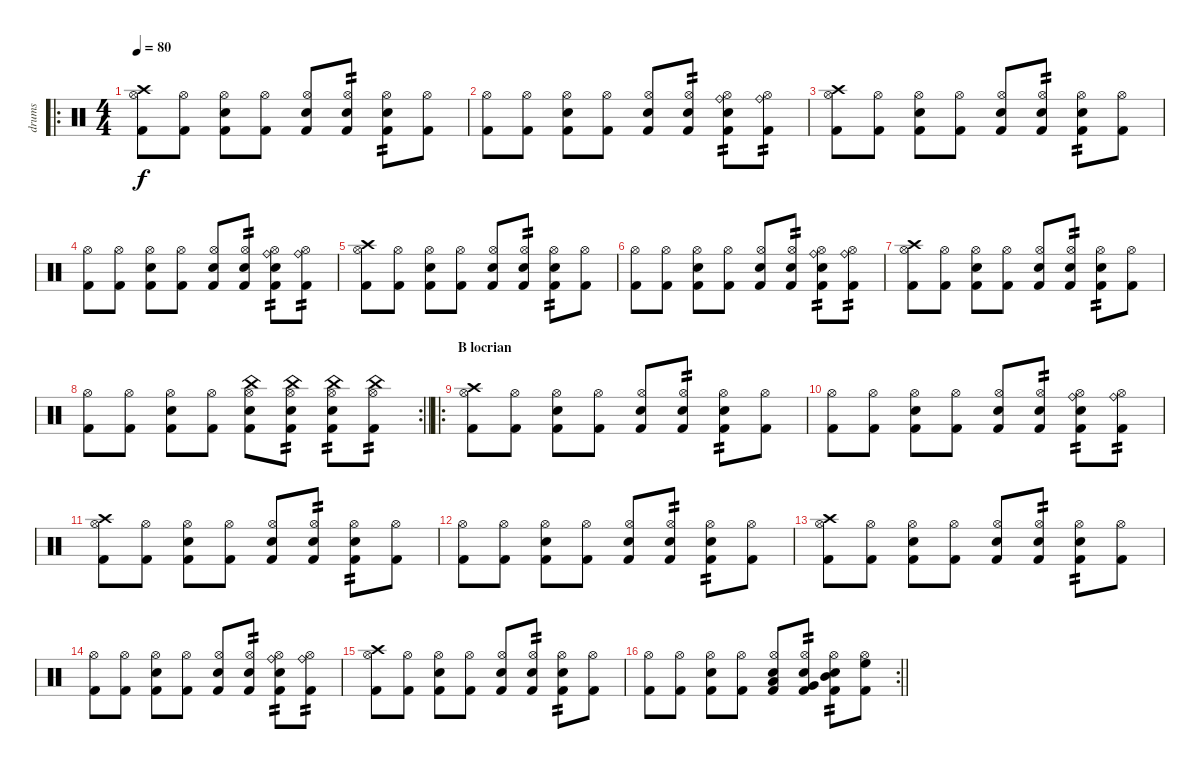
\track ("drums" "drums") {instrument percussion}
\staff {score}
\articulation defaults
\ro
\ts (4 4)
\tempo 80
\clef neutral
\ks c
("Kick (hit) 2" "Hi-Hat (open)" "Crash high (hit)").8{dy f} ("Kick (hit) 2" "Hi-Hat (open)").8 ("Kick (hit) 2" "Electric Snare (hit)" "Hi-Hat (open)").8 ("Kick (hit) 2" "Hi-Hat (open)").8 ("Kick (hit) 2" "Snare (hit) 2" "Hi-Hat (open)").8 ("Kick (hit) 2" "Snare (hit) 2" "Hi-Hat (open)").8{tp 2} ("Kick (hit) 2" "Electric Snare (hit)" "Hi-Hat (open)").8{tp 2} ("Kick (hit) 2" "Hi-Hat (open)").8 |
("Kick (hit) 2" "Hi-Hat (open)").8 ("Kick (hit) 2" "Hi-Hat (open)").8 ("Kick (hit) 2" "Electric Snare (hit)" "Hi-Hat (open)").8 ("Kick (hit) 2" "Hi-Hat (open)").8 ("Kick (hit) 2" "Snare (hit) 2" "Hi-Hat (open)").8 ("Kick (hit) 2" "Snare (hit) 2" "Hi-Hat (open)").8{tp 2} ("Kick (hit) 2" "Electric Snare (hit)" "Hi-Hat (open)" "Ride (bell)").8{tp 2} ("Kick (hit) 2" "Hi-Hat (open)" "Ride (bell)").8{tp 2} |
("Kick (hit) 2" "Hi-Hat (open)" "Crash high (hit)").8 ("Kick (hit) 2" "Hi-Hat (open)").8 ("Kick (hit) 2" "Electric Snare (hit)" "Hi-Hat (open)").8 ("Kick (hit) 2" "Hi-Hat (open)").8 ("Kick (hit) 2" "Snare (hit) 2" "Hi-Hat (open)").8 ("Kick (hit) 2" "Snare (hit) 2" "Hi-Hat (open)").8{tp 2} ("Kick (hit) 2" "Electric Snare (hit)" "Hi-Hat (open)").8{tp 2} ("Kick (hit) 2" "Hi-Hat (open)").8 |
("Kick (hit) 2" "Hi-Hat (open)").8 ("Kick (hit) 2" "Hi-Hat (open)").8 ("Kick (hit) 2" "Electric Snare (hit)" "Hi-Hat (open)").8 ("Kick (hit) 2" "Hi-Hat (open)").8 ("Kick (hit) 2" "Snare (hit) 2" "Hi-Hat (open)").8 ("Kick (hit) 2" "Snare (hit) 2" "Hi-Hat (open)").8{tp 2} ("Kick (hit) 2" "Electric Snare (hit)" "Hi-Hat (open)" "Ride (bell)").8{tp 2} ("Kick (hit) 2" "Hi-Hat (open)" "Ride (bell)").8{tp 2} |
("Kick (hit) 2" "Hi-Hat (open)" "Crash high (hit)").8 ("Kick (hit) 2" "Hi-Hat (open)").8 ("Kick (hit) 2" "Electric Snare (hit)" "Hi-Hat (open)").8 ("Kick (hit) 2" "Hi-Hat (open)").8 ("Kick (hit) 2" "Snare (hit) 2" "Hi-Hat (open)").8 ("Kick (hit) 2" "Snare (hit) 2" "Hi-Hat (open)").8{tp 2} ("Kick (hit) 2" "Electric Snare (hit)" "Hi-Hat (open)").8{tp 2} ("Kick (hit) 2" "Hi-Hat (open)").8 |
("Kick (hit) 2" "Hi-Hat (open)").8 ("Kick (hit) 2" "Hi-Hat (open)").8 ("Kick (hit) 2" "Electric Snare (hit)" "Hi-Hat (open)").8 ("Kick (hit) 2" "Hi-Hat (open)").8 ("Kick (hit) 2" "Snare (hit) 2" "Hi-Hat (open)").8 ("Kick (hit) 2" "Snare (hit) 2" "Hi-Hat (open)").8{tp 2} ("Kick (hit) 2" "Electric Snare (hit)" "Hi-Hat (open)" "Ride (bell)").8{tp 2} ("Kick (hit) 2" "Hi-Hat (open)" "Ride (bell)").8{tp 2} |
("Kick (hit) 2" "Hi-Hat (open)" "Crash high (hit)").8 ("Kick (hit) 2" "Hi-Hat (open)").8 ("Kick (hit) 2" "Electric Snare (hit)" "Hi-Hat (open)").8 ("Kick (hit) 2" "Hi-Hat (open)").8 ("Kick (hit) 2" "Snare (hit) 2" "Hi-Hat (open)").8 ("Kick (hit) 2" "Snare (hit) 2" "Hi-Hat (open)").8{tp 2} ("Kick (hit) 2" "Electric Snare (hit)" "Hi-Hat (open)").8{tp 2} ("Kick (hit) 2" "Hi-Hat (open)").8 |
\rc 2
\barLineRight lightlight
("Kick (hit) 2" "Hi-Hat (open)").8 ("Kick (hit) 2" "Hi-Hat (open)").8 ("Kick (hit) 2" "Electric Snare (hit)" "Hi-Hat (open)").8 ("Kick (hit) 2" "Hi-Hat (open)").8 ("Kick (hit) 2" "Snare (hit) 2" "Hi-Hat (open)" "China (hit)").8 ("Kick (hit) 2" "Snare (hit) 2" "Hi-Hat (open)" "China (hit)").8{tp 2} ("Kick (hit) 2" "Electric Snare (hit)" "Hi-Hat (open)" "China (hit)").8{tp 2} ("Kick (hit) 2" "Hi-Hat (open)" "China (hit)").8{tp 2} |
\ro
\section ("" "B locrian")
("Kick (hit) 2" "Hi-Hat (open)" "Crash high (hit)").8 ("Kick (hit) 2" "Hi-Hat (open)").8 ("Kick (hit) 2" "Electric Snare (hit)" "Hi-Hat (open)").8 ("Kick (hit) 2" "Hi-Hat (open)").8 ("Kick (hit) 2" "Snare (hit) 2" "Hi-Hat (open)").8 ("Kick (hit) 2" "Snare (hit) 2" "Hi-Hat (open)").8{tp 2} ("Kick (hit) 2" "Electric Snare (hit)" "Hi-Hat (open)").8{tp 2} ("Kick (hit) 2" "Hi-Hat (open)").8 |
("Kick (hit) 2" "Hi-Hat (open)").8 ("Kick (hit) 2" "Hi-Hat (open)").8 ("Kick (hit) 2" "Electric Snare (hit)" "Hi-Hat (open)").8 ("Kick (hit) 2" "Hi-Hat (open)").8 ("Kick (hit) 2" "Snare (hit) 2" "Hi-Hat (open)").8 ("Kick (hit) 2" "Snare (hit) 2" "Hi-Hat (open)").8{tp 2} ("Kick (hit) 2" "Electric Snare (hit)" "Hi-Hat (open)" "Ride (bell)").8{tp 2} ("Kick (hit) 2" "Hi-Hat (open)" "Ride (bell)").8{tp 2} |
("Kick (hit) 2" "Hi-Hat (open)" "Crash high (hit)").8 ("Kick (hit) 2" "Hi-Hat (open)").8 ("Kick (hit) 2" "Electric Snare (hit)" "Hi-Hat (open)").8 ("Kick (hit) 2" "Hi-Hat (open)").8 ("Kick (hit) 2" "Snare (hit) 2" "Hi-Hat (open)").8 ("Kick (hit) 2" "Snare (hit) 2" "Hi-Hat (open)").8{tp 2} ("Kick (hit) 2" "Electric Snare (hit)" "Hi-Hat (open)").8{tp 2} ("Kick (hit) 2" "Hi-Hat (open)").8 |
("Kick (hit) 2" "Hi-Hat (open)").8 ("Kick (hit) 2" "Hi-Hat (open)").8 ("Kick (hit) 2" "Electric Snare (hit)" "Hi-Hat (open)").8 ("Kick (hit) 2" "Hi-Hat (open)").8 ("Kick (hit) 2" "Snare (hit) 2" "Hi-Hat (open)").8 ("Kick (hit) 2" "Snare (hit) 2" "Hi-Hat (open)").8{tp 2} ("Kick (hit) 2" "Electric Snare (hit)" "Hi-Hat (open)").8{tp 2} ("Kick (hit) 2" "Hi-Hat (open)").8 |
("Kick (hit) 2" "Hi-Hat (open)" "Crash high (hit)").8 ("Kick (hit) 2" "Hi-Hat (open)").8 ("Kick (hit) 2" "Electric Snare (hit)" "Hi-Hat (open)").8 ("Kick (hit) 2" "Hi-Hat (open)").8 ("Kick (hit) 2" "Snare (hit) 2" "Hi-Hat (open)").8 ("Kick (hit) 2" "Snare (hit) 2" "Hi-Hat (open)").8{tp 2} ("Kick (hit) 2" "Electric Snare (hit)" "Hi-Hat (open)").8{tp 2} ("Kick (hit) 2" "Hi-Hat (open)").8 |
("Kick (hit) 2" "Hi-Hat (open)").8 ("Kick (hit) 2" "Hi-Hat (open)").8 ("Kick (hit) 2" "Electric Snare (hit)" "Hi-Hat (open)").8 ("Kick (hit) 2" "Hi-Hat (open)").8 ("Kick (hit) 2" "Snare (hit) 2" "Hi-Hat (open)").8 ("Kick (hit) 2" "Snare (hit) 2" "Hi-Hat (open)").8{tp 2} ("Kick (hit) 2" "Electric Snare (hit)" "Hi-Hat (open)" "Ride (bell)").8{tp 2} ("Kick (hit) 2" "Hi-Hat (open)" "Ride (bell)").8{tp 2} |
("Kick (hit) 2" "Hi-Hat (open)" "Crash high (hit)").8 ("Kick (hit) 2" "Hi-Hat (open)").8 ("Kick (hit) 2" "Electric Snare (hit)" "Hi-Hat (open)").8 ("Kick (hit) 2" "Hi-Hat (open)").8 ("Kick (hit) 2" "Snare (hit) 2" "Hi-Hat (open)").8 ("Kick (hit) 2" "Snare (hit) 2" "Hi-Hat (open)").8{tp 2} ("Kick (hit) 2" "Electric Snare (hit)" "Hi-Hat (open)").8{tp 2} ("Kick (hit) 2" "Hi-Hat (open)").8 |
\rc 2
\barLineRight lightlight
("Kick (hit) 2" "Hi-Hat (open)").8 ("Kick (hit) 2" "Hi-Hat (open)").8 ("Kick (hit) 2" "Electric Snare (hit)" "Hi-Hat (open)").8 ("Kick (hit) 2" "Hi-Hat (open)").8 ("Kick (hit) 2" "Snare (hit) 2" "Hi-Hat (open)" "Low Floor Tom (hit)").8 ("Kick (hit) 2" "Snare (hit) 2" "Hi-Hat (open)" "Very Low Tom (hit)").8{tp 2} ("Kick (hit) 2" "Electric Snare (hit)" "Hi-Hat (open)" "Mid Tom (hit)").8{tp 2} ("Kick (hit) 2" "Hi-Hat (open)" "High Floor Tom (hit)").8
